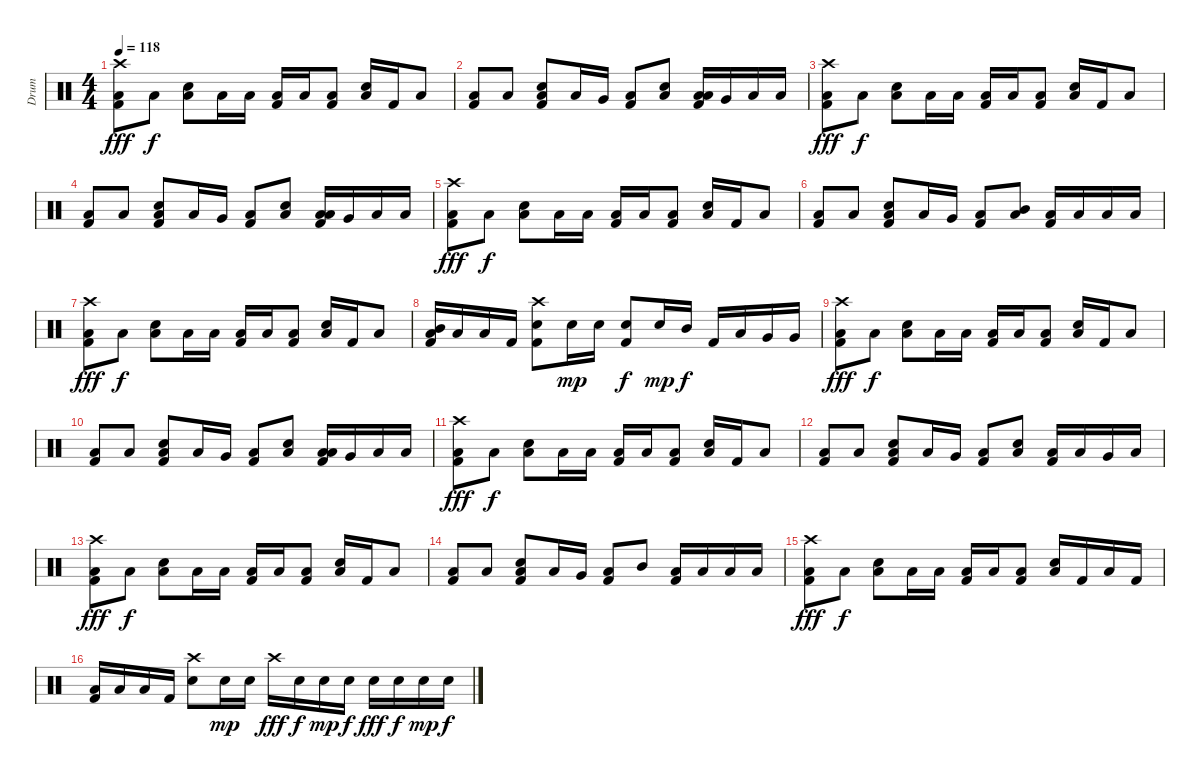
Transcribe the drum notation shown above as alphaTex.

\track ("Drum" "Drum") {instrument percussion}
\staff {score}
\articulation defaults
\ts (4 4)
\tempo 118
\clef neutral
\ks c
("Crash high (hit)" "Low Floor Tom (hit)" "Kick (hit) 2").8{dy fff} "Low Floor Tom (hit)".8{dy f} ("Snare (hit) 2" "Low Floor Tom (hit)").8 "Low Floor Tom (hit)".16 "Low Tom (hit)".16 ("Low Floor Tom (hit)" "Kick (hit) 2").16 "Low Tom (hit)".16 ("Low Floor Tom (hit)" "Kick (hit) 2").8 ("Snare (hit) 2" "Low Floor Tom (hit)").16 "Kick (hit) 2".16 "Low Floor Tom (hit)".8 |
("Low Floor Tom (hit)" "Kick (hit) 2").8 "Low Floor Tom (hit)".8 ("Snare (hit) 2" "Low Floor Tom (hit)" "Kick (hit) 2").8 "Low Floor Tom (hit)".16 "Very Low Tom (hit)".16 ("Low Floor Tom (hit)" "Kick (hit) 2").8 ("Snare (hit) 2" "Low Floor Tom (hit)").8 ("Low Tom (hit)" "Low Floor Tom (hit)" "Kick (hit) 2").16 "Very Low Tom (hit)".16 "Low Floor Tom (hit)".16 "Low Floor Tom (hit)".16 |
("Crash high (hit)" "Low Floor Tom (hit)" "Kick (hit) 2").8{dy fff} "Low Floor Tom (hit)".8{dy f} ("Snare (hit) 2" "Low Floor Tom (hit)").8 "Low Floor Tom (hit)".16 "Low Tom (hit)".16 ("Low Floor Tom (hit)" "Kick (hit) 2").16 "Low Tom (hit)".16 ("Low Floor Tom (hit)" "Kick (hit) 2").8 ("Snare (hit) 2" "Low Floor Tom (hit)").16 "Kick (hit) 2".16 "Low Floor Tom (hit)".8 |
("Low Floor Tom (hit)" "Kick (hit) 2").8 "Low Floor Tom (hit)".8 ("Snare (hit) 2" "Low Floor Tom (hit)" "Kick (hit) 2").8 "Low Floor Tom (hit)".16 "Very Low Tom (hit)".16 ("Low Floor Tom (hit)" "Kick (hit) 2").8 ("Snare (hit) 2" "Low Floor Tom (hit)").8 ("Low Tom (hit)" "Low Floor Tom (hit)" "Kick (hit) 2").16 "Very Low Tom (hit)".16 "Low Floor Tom (hit)".16 "Low Floor Tom (hit)".16 |
("Crash high (hit)" "Low Floor Tom (hit)" "Kick (hit) 2").8{dy fff} "Low Floor Tom (hit)".8{dy f} ("Snare (hit) 2" "Low Floor Tom (hit)").8 "Low Floor Tom (hit)".16 "Low Tom (hit)".16 ("Low Floor Tom (hit)" "Kick (hit) 2").16 "Low Tom (hit)".16 ("Low Floor Tom (hit)" "Kick (hit) 2").8 ("Snare (hit) 2" "Low Floor Tom (hit)").16 "Kick (hit) 2".16 "Low Floor Tom (hit)".8 |
("Low Floor Tom (hit)" "Kick (hit) 2").8 "Low Floor Tom (hit)".8 ("Snare (hit) 2" "Low Floor Tom (hit)" "Kick (hit) 2").8 "Low Floor Tom (hit)".16 "Very Low Tom (hit)".16 ("Low Floor Tom (hit)" "Kick (hit) 2").8 ("Mid Tom (hit)" "Low Floor Tom (hit)").8 ("Low Floor Tom (hit)" "Kick (hit) 2").16 "Low Tom (hit)".16 "Low Floor Tom (hit)".16 "Low Floor Tom (hit)".16 |
("Crash high (hit)" "Low Floor Tom (hit)" "Kick (hit) 2").8{dy fff} "Low Floor Tom (hit)".8{dy f} ("Snare (hit) 2" "Low Floor Tom (hit)").8 "Low Floor Tom (hit)".16 "Low Tom (hit)".16 ("Low Floor Tom (hit)" "Kick (hit) 2").16 "Low Tom (hit)".16 ("Low Floor Tom (hit)" "Kick (hit) 2").8 ("Snare (hit) 2" "Low Floor Tom (hit)").16 "Kick (hit) 2".16 "Low Floor Tom (hit)".8 |
("Mid Tom (hit)" "Low Floor Tom (hit)" "Kick (hit) 2").16 "Low Tom (hit)".16 "Low Floor Tom (hit)".16 "Kick (hit) 2".16 ("Crash high (hit)" "Snare (hit) 2" "Kick (hit) 2").8 "Snare (hit) 2".16{dy mp} "Snare (hit) 2".16 ("Snare (hit) 2" "Kick (hit) 2").8{dy f} "Snare (hit) 2".16{dy mp} "Mid Tom (hit)".16{dy f} "Kick (hit) 2".16 "Low Tom (hit)".16 "Very Low Tom (hit)".16 "Very Low Tom (hit)".16 |
("Crash high (hit)" "Low Floor Tom (hit)" "Kick (hit) 2").8{dy fff} "Low Floor Tom (hit)".8{dy f} ("Snare (hit) 2" "Low Floor Tom (hit)").8 "Low Floor Tom (hit)".16 "Low Tom (hit)".16 ("Low Floor Tom (hit)" "Kick (hit) 2").16 "Low Tom (hit)".16 ("Low Floor Tom (hit)" "Kick (hit) 2").8 ("Snare (hit) 2" "Low Floor Tom (hit)").16 "Kick (hit) 2".16 "Low Floor Tom (hit)".8 |
("Low Floor Tom (hit)" "Kick (hit) 2").8 "Low Floor Tom (hit)".8 ("Snare (hit) 2" "Low Floor Tom (hit)" "Kick (hit) 2").8 "Low Floor Tom (hit)".16 "Very Low Tom (hit)".16 ("Low Floor Tom (hit)" "Kick (hit) 2").8 ("Snare (hit) 2" "Low Floor Tom (hit)").8 ("Low Tom (hit)" "Low Floor Tom (hit)" "Kick (hit) 2").16 "Very Low Tom (hit)".16 "Low Floor Tom (hit)".16 "Low Floor Tom (hit)".16 |
("Crash high (hit)" "Low Floor Tom (hit)" "Kick (hit) 2").8{dy fff} "Low Floor Tom (hit)".8{dy f} ("Snare (hit) 2" "Low Floor Tom (hit)").8 "Low Floor Tom (hit)".16 "Low Tom (hit)".16 ("Low Floor Tom (hit)" "Kick (hit) 2").16 "Low Tom (hit)".16 ("Low Floor Tom (hit)" "Kick (hit) 2").8 ("Snare (hit) 2" "Low Floor Tom (hit)").16 "Kick (hit) 2".16 "Low Floor Tom (hit)".8 |
("Low Floor Tom (hit)" "Kick (hit) 2").8 "Low Floor Tom (hit)".8 ("Snare (hit) 2" "Low Floor Tom (hit)" "Kick (hit) 2").8 "Low Floor Tom (hit)".16 "Very Low Tom (hit)".16 ("Low Floor Tom (hit)" "Kick (hit) 2").8 ("Snare (hit) 2" "Low Floor Tom (hit)").8 ("Low Floor Tom (hit)" "Kick (hit) 2").16 "Low Tom (hit)".16 "Very Low Tom (hit)".16 "Low Floor Tom (hit)".16 |
("Crash high (hit)" "Low Floor Tom (hit)" "Kick (hit) 2").8{dy fff} "Low Floor Tom (hit)".8{dy f} ("Snare (hit) 2" "Low Floor Tom (hit)").8 "Low Floor Tom (hit)".16 "Low Tom (hit)".16 ("Low Floor Tom (hit)" "Kick (hit) 2").16 "Low Tom (hit)".16 ("Low Floor Tom (hit)" "Kick (hit) 2").8 ("Snare (hit) 2" "Low Floor Tom (hit)").16 "Kick (hit) 2".16 "Low Floor Tom (hit)".8 |
("Low Floor Tom (hit)" "Kick (hit) 2").8 "Low Floor Tom (hit)".8 ("Snare (hit) 2" "Low Floor Tom (hit)" "Kick (hit) 2").8 "Low Floor Tom (hit)".16 "Very Low Tom (hit)".16 ("Low Floor Tom (hit)" "Kick (hit) 2").8 "Mid Tom (hit)".8 ("Low Floor Tom (hit)" "Kick (hit) 2").16 "Low Tom (hit)".16 "Low Floor Tom (hit)".16 "Low Floor Tom (hit)".16 |
("Crash high (hit)" "Low Floor Tom (hit)" "Kick (hit) 2").8{dy fff} "Low Floor Tom (hit)".8{dy f} ("Snare (hit) 2" "Low Floor Tom (hit)").8 "Low Floor Tom (hit)".16 "Low Tom (hit)".16 ("Low Floor Tom (hit)" "Kick (hit) 2").16 "Low Tom (hit)".16 ("Low Floor Tom (hit)" "Kick (hit) 2").8 ("Snare (hit) 2" "Low Floor Tom (hit)").16 "Kick (hit) 2".16 "Low Floor Tom (hit)".16 "Kick (hit) 2".16 |
("Low Floor Tom (hit)" "Kick (hit) 2").16 "Low Tom (hit)".16 "Low Floor Tom (hit)".16 "Kick (hit) 2".16 ("Crash high (hit)" "Snare (hit) 2").8 "Snare (hit) 2".16{dy mp} "Snare (hit) 2".16 "Crash high (hit)".16{dy fff} "Snare (hit) 2".16{dy f} "Snare (hit) 2".16{dy mp} "Snare (hit) 2".16{dy f} "Snare (hit) 2".16{dy fff} "Snare (hit) 2".16{dy f} "Snare (hit) 2".16{dy mp} "Snare (hit) 2".16{dy f}
